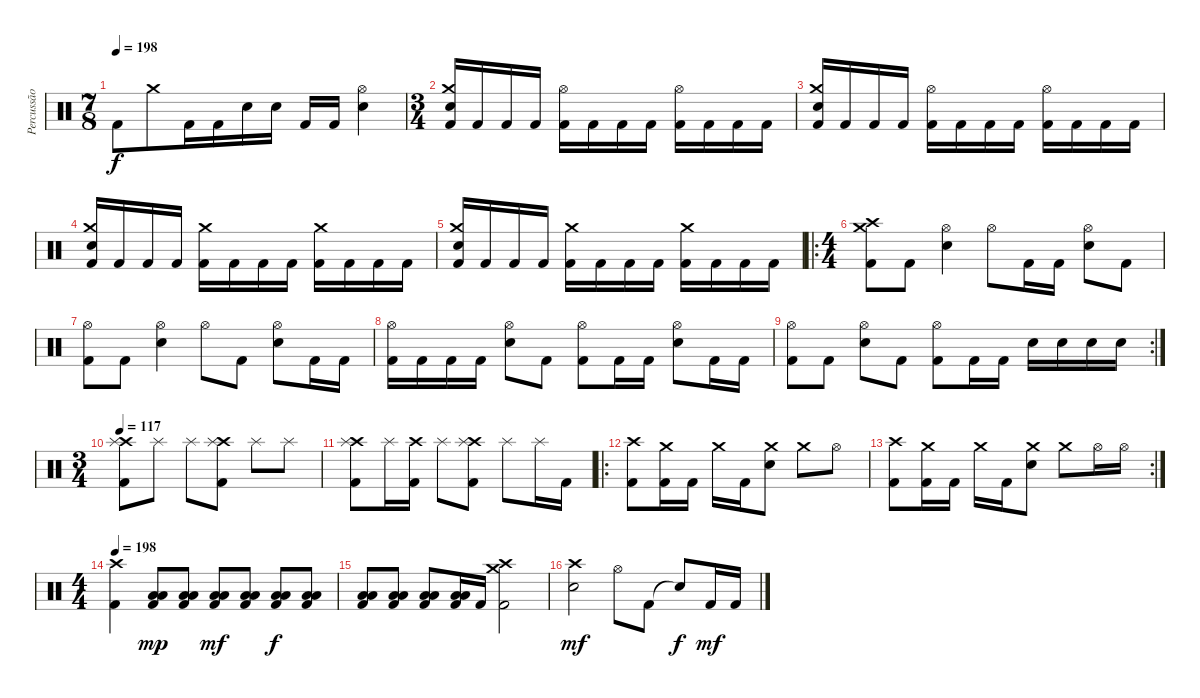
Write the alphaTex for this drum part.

\track ("Percussão" "Percussão") {instrument percussion}
\staff {score}
\articulation defaults
\ts (7 8)
\tempo 198
\clef neutral
\ks c "Kick (hit) 2".8{dy f} "Crash medium (hit)".8 "Kick (hit) 2".16 "Kick (hit) 2".16 "Snare (hit) 2".16 "Snare (hit) 2".16 "Kick (hit) 2".16 "Kick (hit) 2".16
("Hi-Hat (open)" "Snare (hit) 2").4 |
\ts (3 4)
("Crash medium (hit)" "Snare (hit) 2" "Kick (hit) 2").16 "Kick (hit) 2".16 "Kick (hit) 2".16 "Kick (hit) 2".16 ("Hi-Hat (open)" "Kick (hit) 2").16 "Kick (hit) 2".16 "Kick (hit) 2".16 "Kick (hit) 2".16 ("Hi-Hat (open)" "Kick (hit) 2").16 "Kick (hit) 2".16 "Kick (hit) 2".16 "Kick (hit) 2".16 |
("Crash medium (hit)" "Snare (hit) 2" "Kick (hit) 2").16 "Kick (hit) 2".16 "Kick (hit) 2".16 "Kick (hit) 2".16 ("Hi-Hat (open)" "Kick (hit) 2").16 "Kick (hit) 2".16 "Kick (hit) 2".16 "Kick (hit) 2".16 ("Hi-Hat (open)" "Kick (hit) 2").16 "Kick (hit) 2".16 "Kick (hit) 2".16 "Kick (hit) 2".16 |
("Crash medium (hit)" "Snare (hit) 2" "Kick (hit) 2").16 "Kick (hit) 2".16 "Kick (hit) 2".16 "Kick (hit) 2".16 ("Crash medium (hit)" "Kick (hit) 2").16 "Kick (hit) 2".16 "Kick (hit) 2".16 "Kick (hit) 2".16 ("Crash medium (hit)" "Kick (hit) 2").16 "Kick (hit) 2".16 "Kick (hit) 2".16 "Kick (hit) 2".16 |
("Crash medium (hit)" "Snare (hit) 2" "Kick (hit) 2").16 "Kick (hit) 2".16 "Kick (hit) 2".16 "Kick (hit) 2".16 ("Crash medium (hit)" "Kick (hit) 2").16 "Kick (hit) 2".16 "Kick (hit) 2".16 "Kick (hit) 2".16 ("Crash medium (hit)" "Kick (hit) 2").16 "Kick (hit) 2".16 "Kick (hit) 2".16 "Kick (hit) 2".16 |
\ro
\ts (4 4)
("Crash medium (hit)" "Crash high (hit)" "Kick (hit) 2").8 "Kick (hit) 2".8 ("Hi-Hat (open)" "Snare (hit) 2").4 "Hi-Hat (open)".8 "Kick (hit) 2".16 "Kick (hit) 2".16 ("Hi-Hat (open)" "Snare (hit) 2").8 "Kick (hit) 2".8 |
("Hi-Hat (open)" "Kick (hit) 2").8 "Kick (hit) 2".8 ("Hi-Hat (open)" "Snare (hit) 2").4 "Hi-Hat (open)".8 "Kick (hit) 2".8 ("Hi-Hat (open)" "Snare (hit) 2").8 "Kick (hit) 2".16 "Kick (hit) 2".16 |
("Hi-Hat (open)" "Kick (hit) 2").16 "Kick (hit) 2".16 "Kick (hit) 2".16 "Kick (hit) 2".16 ("Hi-Hat (open)" "Snare (hit) 2").8 "Kick (hit) 2".8 ("Hi-Hat (open)" "Kick (hit) 2").8 "Kick (hit) 2".16 "Kick (hit) 2".16 ("Hi-Hat (open)" "Snare (hit) 2").8 "Kick (hit) 2".16 "Kick (hit) 2".16 |
\rc 2
("Hi-Hat (open)" "Kick (hit) 2").8 "Kick (hit) 2".8 ("Hi-Hat (open)" "Snare (hit) 2").8 "Kick (hit) 2".8 ("Hi-Hat (open)" "Kick (hit) 2").8 "Kick (hit) 2".16 "Kick (hit) 2".16 "Snare (hit) 2".16 "Snare (hit) 2".16 "Snare (hit) 2".16 "Snare (hit) 2".16 |
\ts (3 4)
\tempo 117
("Crash high (hit)" "Splash (hit)" "Kick (hit) 2").8 "Splash (hit)".8 "Splash (hit)".8 ("Crash high (hit)" "Splash (hit)" "Kick (hit) 2").8 "Splash (hit)".8 "Splash (hit)".8 |
("Crash high (hit)" "Splash (hit)" "Kick (hit) 2").8 "Splash (hit)".16 ("Crash high (hit)" "Kick (hit) 2").16 "Splash (hit)".8 ("Crash high (hit)" "Splash (hit)" "Kick (hit) 2").8 "Splash (hit)".8 "Splash (hit)".16 "Kick (hit) 2".16 |
\ro
("Crash high (hit)" "Kick (hit) 2").8 ("Crash medium (hit)" "Kick (hit) 2").16 "Kick (hit) 2".16 "Crash medium (hit)".16 "Kick (hit) 2".16 ("Crash medium (hit)" "Snare (hit) 2").8 "Crash medium (hit)".8 "Hi-Hat (open)".8 |
\rc 2
("Crash high (hit)" "Kick (hit) 2").8 ("Crash medium (hit)" "Kick (hit) 2").16 "Kick (hit) 2".16 "Crash medium (hit)".16 "Kick (hit) 2".16 ("Crash medium (hit)" "Snare (hit) 2").8 "Crash medium (hit)".8 "Hi-Hat (open)".16 "Hi-Hat (open)".16 |
\ts (4 4)
\tempo 198
("Crash high (hit)" "Kick (hit) 2").4 ("Low Tom (hit)" "Low Floor Tom (hit)" "Kick (hit) 2").8{dy mp} ("Low Tom (hit)" "Low Floor Tom (hit)" "Kick (hit) 2").8 ("Low Tom (hit)" "Low Floor Tom (hit)" "Kick (hit) 2").8{dy mf} ("Low Tom (hit)" "Low Floor Tom (hit)" "Kick (hit) 2").8 ("Low Tom (hit)" "Low Floor Tom (hit)" "Kick (hit) 2").8{dy f} ("Low Tom (hit)" "Low Floor Tom (hit)" "Kick (hit) 2").8 |
("Low Tom (hit)" "Low Floor Tom (hit)" "Kick (hit) 2").8 ("Low Tom (hit)" "Low Floor Tom (hit)" "Kick (hit) 2").8 ("Low Tom (hit)" "Low Floor Tom (hit)" "Kick (hit) 2").8 ("Low Tom (hit)" "Low Floor Tom (hit)" "Kick (hit) 2").16 "Kick (hit) 2".16 ("Crash high (hit)" "Crash medium (hit)" "Kick (hit) 2").2 |
("Crash high (hit)" "Snare (hit) 2").2{dy mf} "Hi-Hat (open)".8 "Kick (hit) 2".8 "Snare (hit)"{t}.8{dy f} "Kick (hit) 2".16{dy mf} "Kick (hit) 2".16
